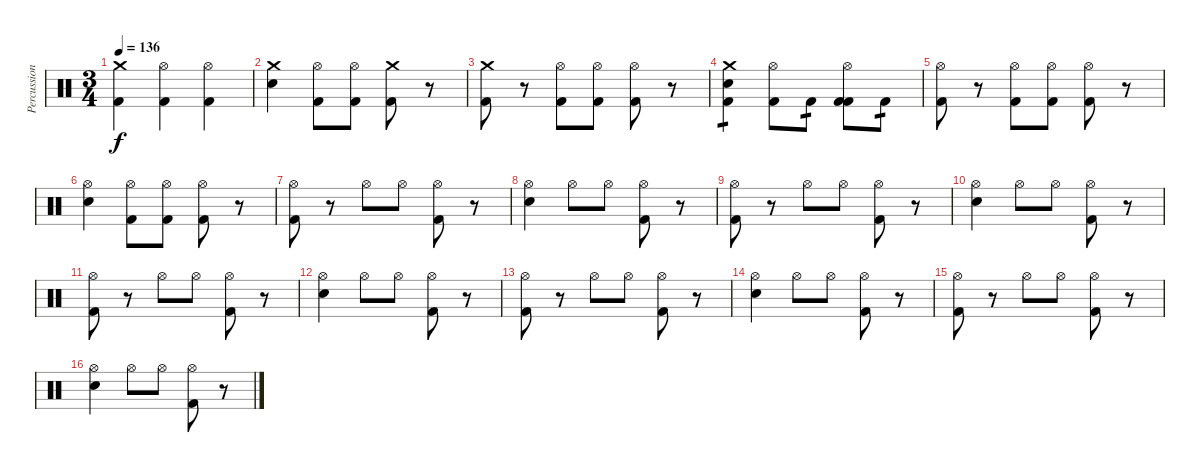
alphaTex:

\track ("Percussion" "Percussion") {instrument percussion}
\staff {score}
\articulation defaults
\ts (3 4)
\tempo 136
\clef neutral
\ks c
("Crash medium (hit)" "Kick (hit) 2").4{dy f} ("Hi-Hat (open)" "Kick (hit) 2").4 ("Hi-Hat (open)" "Kick (hit) 2").4 |
("Crash medium (hit)" "Electric Snare (hit)").4 ("Hi-Hat (open)" "Kick (hit) 2").8 ("Hi-Hat (open)" "Kick (hit) 2").8 ("Crash medium (hit)" "Kick (hit) 2").8 r.8 |
("Crash medium (hit)" "Kick (hit) 2").8 r.8 ("Hi-Hat (open)" "Kick (hit) 2").8 ("Hi-Hat (open)" "Kick (hit) 2").8 ("Hi-Hat (open)" "Kick (hit) 2").8 r.8 |
("Crash medium (hit)" "Electric Snare (hit)" "Kick (hit) 2").4{tp 1} ("Hi-Hat (open)" "Kick (hit) 2").8 "Kick (hit) 2".8{tp 1} ("Hi-Hat (open)" "Kick (hit) 2" "Kick (hit) 2").8 "Kick (hit) 2".8{tp 1} |
("Hi-Hat (open)" "Kick (hit) 2").8 r.8 ("Hi-Hat (open)" "Kick (hit) 2").8 ("Hi-Hat (open)" "Kick (hit) 2").8 ("Hi-Hat (open)" "Kick (hit) 2").8 r.8 |
("Hi-Hat (open)" "Electric Snare (hit)").4 ("Hi-Hat (open)" "Kick (hit) 2").8 ("Hi-Hat (open)" "Kick (hit) 2").8 ("Hi-Hat (open)" "Kick (hit) 2").8 r.8 |
("Hi-Hat (open)" "Kick (hit) 2").8 r.8 "Hi-Hat (open)".8 "Hi-Hat (open)".8 ("Hi-Hat (open)" "Kick (hit) 2").8 r.8 |
("Hi-Hat (open)" "Electric Snare (hit)").4 "Hi-Hat (open)".8 "Hi-Hat (open)".8 ("Hi-Hat (open)" "Kick (hit) 2").8 r.8 |
("Hi-Hat (open)" "Kick (hit) 2").8 r.8 "Hi-Hat (open)".8 "Hi-Hat (open)".8 ("Hi-Hat (open)" "Kick (hit) 2").8 r.8 |
("Hi-Hat (open)" "Electric Snare (hit)").4 "Hi-Hat (open)".8 "Hi-Hat (open)".8 ("Hi-Hat (open)" "Kick (hit) 2").8 r.8 |
("Hi-Hat (open)" "Kick (hit) 2").8 r.8 "Hi-Hat (open)".8 "Hi-Hat (open)".8 ("Hi-Hat (open)" "Kick (hit) 2").8 r.8 |
("Hi-Hat (open)" "Electric Snare (hit)").4 "Hi-Hat (open)".8 "Hi-Hat (open)".8 ("Hi-Hat (open)" "Kick (hit) 2").8 r.8 |
("Hi-Hat (open)" "Kick (hit) 2").8 r.8 "Hi-Hat (open)".8 "Hi-Hat (open)".8 ("Hi-Hat (open)" "Kick (hit) 2").8 r.8 |
("Hi-Hat (open)" "Electric Snare (hit)").4 "Hi-Hat (open)".8 "Hi-Hat (open)".8 ("Hi-Hat (open)" "Kick (hit) 2").8 r.8 |
("Hi-Hat (open)" "Kick (hit) 2").8 r.8 "Hi-Hat (open)".8 "Hi-Hat (open)".8 ("Hi-Hat (open)" "Kick (hit) 2").8 r.8 |
("Hi-Hat (open)" "Electric Snare (hit)").4 "Hi-Hat (open)".8 "Hi-Hat (open)".8 ("Hi-Hat (open)" "Kick (hit) 2").8 r.8
